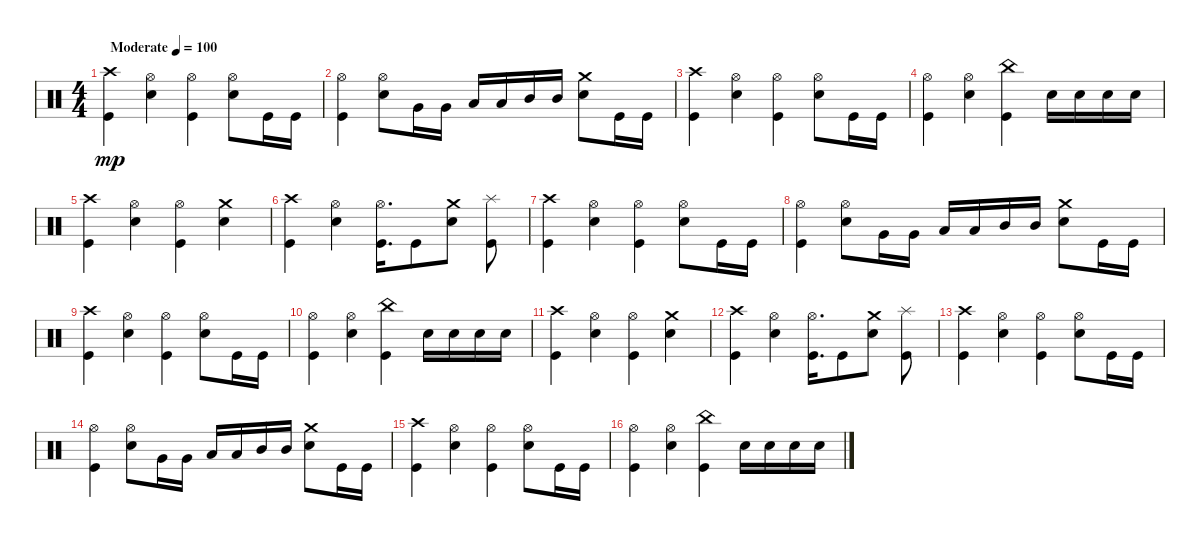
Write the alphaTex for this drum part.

\track "" {instrument percussion}
\staff {score}
\articulation defaults
\ts (4 4)
\tempo (100 "Moderate")
\clef neutral
\ks c
("Crash high (hit)" "Kick (hit)").4{dy mp} ("Hi-Hat (open)" "Snare (hit) 2").4 ("Hi-Hat (open)" "Kick (hit)").4 ("Hi-Hat (open)" "Snare (hit) 2").8 "Kick (hit)".16 "Kick (hit)".16 |
("Kick (hit)" "Hi-Hat (open)").4 ("Hi-Hat (open)" "Snare (hit) 2").8 "Very Low Tom (hit)".16 "Very Low Tom (hit)".16 "Low Tom (hit)".16 "Low Tom (hit)".16 "Mid Tom (hit)".16 "Mid Tom (hit)".16 ("Crash medium (hit)" "Snare (hit) 2").8 "Kick (hit)".16 "Kick (hit)".16 |
("Crash high (hit)" "Kick (hit)").4 ("Hi-Hat (open)" "Snare (hit) 2").4 ("Hi-Hat (open)" "Kick (hit)").4 ("Hi-Hat (open)" "Snare (hit) 2").8 "Kick (hit)".16 "Kick (hit)".16 |
("Kick (hit)" "Hi-Hat (open)").4 ("Hi-Hat (open)" "Snare (hit) 2").4 ("Kick (hit)" "China (hit)").4 "Snare (hit) 2".16 "Snare (hit) 2".16 "Snare (hit) 2".16 "Snare (hit) 2".16 |
("Crash high (hit)" "Kick (hit)").4 ("Snare (hit) 2" "Hi-Hat (open)").4 ("Kick (hit)" "Hi-Hat (open)").4 ("Snare (hit) 2" "Crash medium (hit)").4 |
("Crash high (hit)" "Kick (hit)").4 ("Snare (hit) 2" "Hi-Hat (open)").4 ("Kick (hit)" "Hi-Hat (open)").16{d} "Kick (hit)".8 ("Snare (hit) 2" "Crash medium (hit)").8 ("Splash (hit)" "Kick (hit)").8 |
("Crash high (hit)" "Kick (hit)").4 ("Hi-Hat (open)" "Snare (hit) 2").4 ("Hi-Hat (open)" "Kick (hit)").4 ("Hi-Hat (open)" "Snare (hit) 2").8 "Kick (hit)".16 "Kick (hit)".16 |
("Kick (hit)" "Hi-Hat (open)").4 ("Hi-Hat (open)" "Snare (hit) 2").8 "Very Low Tom (hit)".16 "Very Low Tom (hit)".16 "Low Tom (hit)".16 "Low Tom (hit)".16 "Mid Tom (hit)".16 "Mid Tom (hit)".16 ("Crash medium (hit)" "Snare (hit) 2").8 "Kick (hit)".16 "Kick (hit)".16 |
("Crash high (hit)" "Kick (hit)").4 ("Hi-Hat (open)" "Snare (hit) 2").4 ("Hi-Hat (open)" "Kick (hit)").4 ("Hi-Hat (open)" "Snare (hit) 2").8 "Kick (hit)".16 "Kick (hit)".16 |
("Kick (hit)" "Hi-Hat (open)").4 ("Hi-Hat (open)" "Snare (hit) 2").4 ("Kick (hit)" "China (hit)").4 "Snare (hit) 2".16 "Snare (hit) 2".16 "Snare (hit) 2".16 "Snare (hit) 2".16 |
("Crash high (hit)" "Kick (hit)").4 ("Snare (hit) 2" "Hi-Hat (open)").4 ("Kick (hit)" "Hi-Hat (open)").4 ("Snare (hit) 2" "Crash medium (hit)").4 |
("Crash high (hit)" "Kick (hit)").4 ("Snare (hit) 2" "Hi-Hat (open)").4 ("Kick (hit)" "Hi-Hat (open)").16{d} "Kick (hit)".8 ("Snare (hit) 2" "Crash medium (hit)").8 ("Splash (hit)" "Kick (hit)").8 |
("Crash high (hit)" "Kick (hit)").4 ("Hi-Hat (open)" "Snare (hit) 2").4 ("Hi-Hat (open)" "Kick (hit)").4 ("Hi-Hat (open)" "Snare (hit) 2").8 "Kick (hit)".16 "Kick (hit)".16 |
("Kick (hit)" "Hi-Hat (open)").4 ("Hi-Hat (open)" "Snare (hit) 2").8 "Very Low Tom (hit)".16 "Very Low Tom (hit)".16 "Low Tom (hit)".16 "Low Tom (hit)".16 "Mid Tom (hit)".16 "Mid Tom (hit)".16 ("Crash medium (hit)" "Snare (hit) 2").8 "Kick (hit)".16 "Kick (hit)".16 |
("Crash high (hit)" "Kick (hit)").4 ("Hi-Hat (open)" "Snare (hit) 2").4 ("Hi-Hat (open)" "Kick (hit)").4 ("Hi-Hat (open)" "Snare (hit) 2").8 "Kick (hit)".16 "Kick (hit)".16 |
("Kick (hit)" "Hi-Hat (open)").4 ("Hi-Hat (open)" "Snare (hit) 2").4 ("Kick (hit)" "China (hit)").4 "Snare (hit) 2".16 "Snare (hit) 2".16 "Snare (hit) 2".16 "Snare (hit) 2".16
